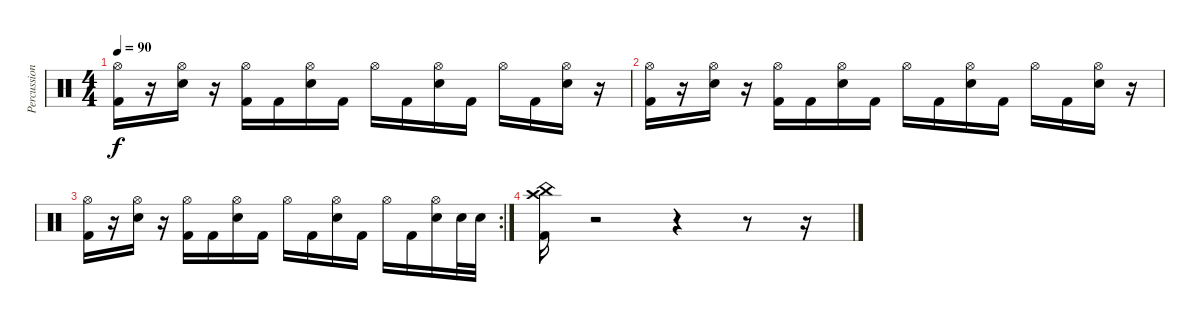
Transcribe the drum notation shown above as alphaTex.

\track ("Percussion" "Percussion") {instrument percussion}
\staff {score}
\articulation defaults
\ts (4 4)
\tempo 90
\clef neutral
\ks c
("Kick (hit) 2" "Hi-Hat (open)").16{dy f} r.16 ("Snare (hit) 2" "Hi-Hat (open)").16 r.16 ("Kick (hit) 2" "Hi-Hat (open)").16 "Kick (hit) 2".16 ("Snare (hit) 2" "Hi-Hat (open)").16 "Kick (hit) 2".16 "Hi-Hat (open)".16 "Kick (hit) 2".16 ("Snare (hit) 2" "Hi-Hat (open)").16 "Kick (hit) 2".16 "Hi-Hat (open)".16 "Kick (hit) 2".16 ("Snare (hit) 2" "Hi-Hat (open)").16 r.16 |
("Kick (hit) 2" "Hi-Hat (open)").16 r.16 ("Snare (hit) 2" "Hi-Hat (open)").16 r.16 ("Kick (hit) 2" "Hi-Hat (open)").16 "Kick (hit) 2".16 ("Snare (hit) 2" "Hi-Hat (open)").16 "Kick (hit) 2".16 "Hi-Hat (open)".16 "Kick (hit) 2".16 ("Snare (hit) 2" "Hi-Hat (open)").16 "Kick (hit) 2".16 "Hi-Hat (open)".16 "Kick (hit) 2".16 ("Snare (hit) 2" "Hi-Hat (open)").16 r.16 |
\rc 2
("Kick (hit) 2" "Hi-Hat (open)").16 r.16 ("Snare (hit) 2" "Hi-Hat (open)").16 r.16 ("Kick (hit) 2" "Hi-Hat (open)").16 "Kick (hit) 2".16 ("Snare (hit) 2" "Hi-Hat (open)").16 "Kick (hit) 2".16 "Hi-Hat (open)".16 "Kick (hit) 2".16 ("Snare (hit) 2" "Hi-Hat (open)").16 "Kick (hit) 2".16 "Hi-Hat (open)".16 "Kick (hit) 2".16 ("Snare (hit) 2" "Hi-Hat (open)").16 "Snare (hit) 2".32 "Snare (hit) 2".32 |
("Kick (hit) 2" "China (hit)" "Crash high (hit)").16 r.2 r.4 r.8 r.16
